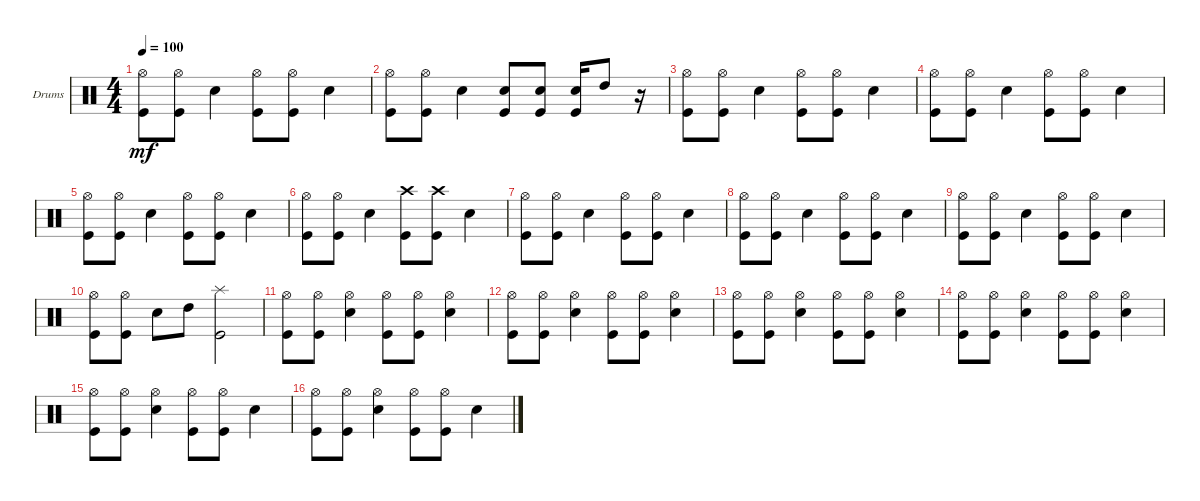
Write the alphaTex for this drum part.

\defaultSystemsLayout 4
\bracketExtendMode groupsimilarinstruments
\firstSystemTrackNameOrientation horizontal
\otherSystemsTrackNameOrientation horizontal
\track ("Drumkit" "Drums") {instrument percussion}
\staff {score}
\articulation defaults
\ts (4 4)
\tempo 100
\clef neutral
\ks c
("Kick (hit)" "Hi-Hat (open)").8{dy mf} ("Kick (hit)" "Hi-Hat (open)").8 "Snare (hit) 2".4 ("Kick (hit)" "Hi-Hat (open)").8 ("Kick (hit)" "Hi-Hat (open)").8 "Snare (hit) 2".4 |
("Kick (hit)" "Hi-Hat (open)").8 ("Kick (hit)" "Hi-Hat (open)").8 "Snare (hit) 2".4 ("Snare (hit) 2" "Kick (hit)").8 ("Snare (hit) 2" "Kick (hit)").8 ("Snare (hit) 2" "Kick (hit)").16 "High Tom (hit)".8 r.16 |
("Kick (hit)" "Hi-Hat (open)").8 ("Kick (hit)" "Hi-Hat (open)").8 "Snare (hit) 2".4 ("Kick (hit)" "Hi-Hat (open)").8 ("Kick (hit)" "Hi-Hat (open)").8 "Snare (hit) 2".4 |
("Kick (hit)" "Hi-Hat (open)").8 ("Kick (hit)" "Hi-Hat (open)").8 "Snare (hit) 2".4 ("Kick (hit)" "Hi-Hat (open)").8 ("Kick (hit)" "Hi-Hat (open)").8 "Snare (hit) 2".4 |
("Kick (hit)" "Hi-Hat (open)").8 ("Kick (hit)" "Hi-Hat (open)").8 "Snare (hit) 2".4 ("Kick (hit)" "Hi-Hat (open)").8 ("Kick (hit)" "Hi-Hat (open)").8 "Snare (hit) 2".4 |
("Kick (hit)" "Hi-Hat (open)").8 ("Kick (hit)" "Hi-Hat (open)").8 "Snare (hit) 2".4 ("Kick (hit)" "Crash high (hit)").8 ("Kick (hit)" "Crash high (hit)").8 "Snare (hit) 2".4 |
("Kick (hit)" "Hi-Hat (open)").8 ("Kick (hit)" "Hi-Hat (open)").8 "Snare (hit) 2".4 ("Kick (hit)" "Hi-Hat (open)").8 ("Kick (hit)" "Hi-Hat (open)").8 "Snare (hit) 2".4 |
("Kick (hit)" "Hi-Hat (open)").8 ("Kick (hit)" "Hi-Hat (open)").8 "Snare (hit) 2".4 ("Kick (hit)" "Hi-Hat (open)").8 ("Kick (hit)" "Hi-Hat (open)").8 "Snare (hit) 2".4 |
("Kick (hit)" "Hi-Hat (open)").8 ("Kick (hit)" "Hi-Hat (open)").8 "Snare (hit) 2".4 ("Kick (hit)" "Hi-Hat (open)").8 ("Kick (hit)" "Hi-Hat (open)").8 "Snare (hit) 2".4 |
("Kick (hit)" "Hi-Hat (open)").8 ("Kick (hit)" "Hi-Hat (open)").8 "Snare (hit) 2".8 "High Tom (hit)".8 ("Kick (hit)" "Splash (hit)").2 |
("Kick (hit)" "Hi-Hat (open)").8 ("Kick (hit)" "Hi-Hat (open)").8 ("Snare (hit) 2" "Hi-Hat (open)").4 ("Kick (hit)" "Hi-Hat (open)").8 ("Kick (hit)" "Hi-Hat (open)").8 ("Snare (hit) 2" "Hi-Hat (open)").4 |
("Kick (hit)" "Hi-Hat (open)").8 ("Kick (hit)" "Hi-Hat (open)").8 ("Snare (hit) 2" "Hi-Hat (open)").4 ("Kick (hit)" "Hi-Hat (open)").8 ("Kick (hit)" "Hi-Hat (open)").8 ("Snare (hit) 2" "Hi-Hat (open)").4 |
("Kick (hit)" "Hi-Hat (open)").8 ("Kick (hit)" "Hi-Hat (open)").8 ("Snare (hit) 2" "Hi-Hat (open)").4 ("Kick (hit)" "Hi-Hat (open)").8 ("Kick (hit)" "Hi-Hat (open)").8 ("Snare (hit) 2" "Hi-Hat (open)").4 |
("Kick (hit)" "Hi-Hat (open)").8 ("Kick (hit)" "Hi-Hat (open)").8 ("Snare (hit) 2" "Hi-Hat (open)").4 ("Kick (hit)" "Hi-Hat (open)").8 ("Kick (hit)" "Hi-Hat (open)").8 ("Snare (hit) 2" "Hi-Hat (open)").4 |
("Kick (hit)" "Hi-Hat (open)").8 ("Kick (hit)" "Hi-Hat (open)").8 ("Snare (hit) 2" "Hi-Hat (open)").4 ("Kick (hit)" "Hi-Hat (open)").8 ("Kick (hit)" "Hi-Hat (open)").8 "Snare (hit) 2".4 |
("Kick (hit)" "Hi-Hat (open)").8 ("Kick (hit)" "Hi-Hat (open)").8 ("Snare (hit) 2" "Hi-Hat (open)").4 ("Kick (hit)" "Hi-Hat (open)").8 ("Kick (hit)" "Hi-Hat (open)").8 "Snare (hit) 2".4
